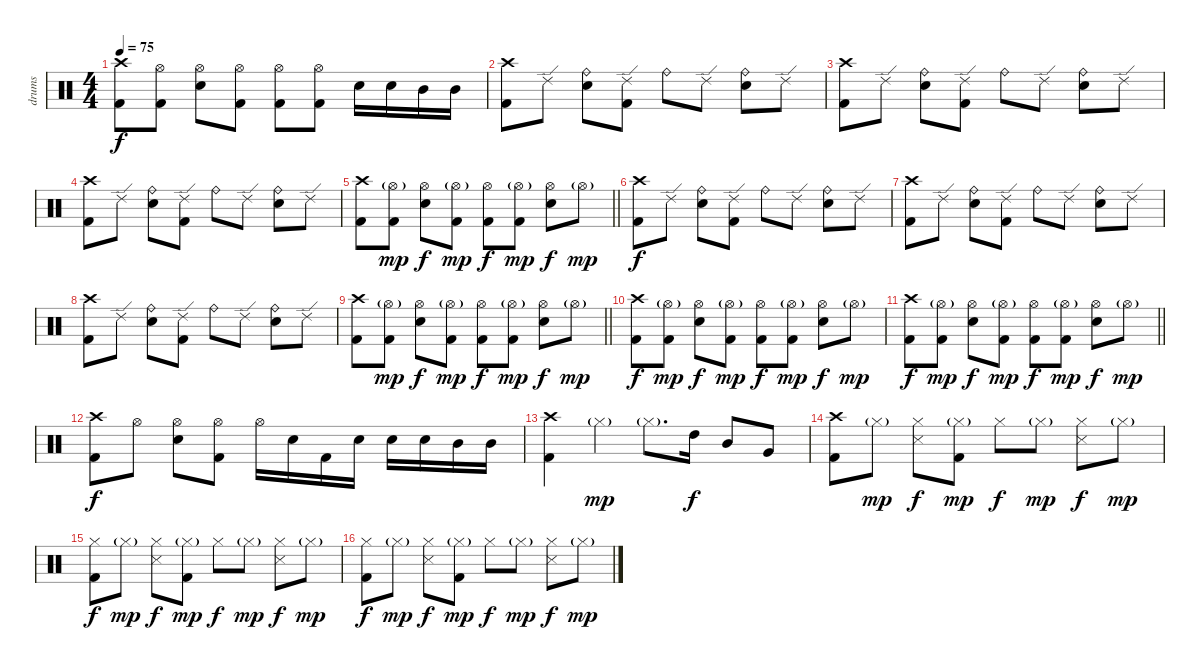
\track ("drums" "drums") {instrument percussion}
\staff
\articulation defaults
\ts (4 4)
\tempo 75
\clef neutral
\ks c
("Crash high (hit)" "Kick (hit) 2").8{dy f} ("Hi-Hat (open)" "Kick (hit) 2").8 ("Hi-Hat (open)" "Electric Snare (hit)").8 ("Hi-Hat (open)" "Kick (hit) 2").8 ("Hi-Hat (open)" "Kick (hit) 2").8 ("Hi-Hat (open)" "Kick (hit) 2").8 "Electric Snare (hit)".16 "Electric Snare (hit)".16 "Mid Tom (hit)".16 "Mid Tom (hit)".16 |
("Crash high (hit)" "Kick (hit) 2").8 "Ride (edge) 2".8 ("Ride (bell)" "Electric Snare (hit)").8 ("Ride (edge) 2" "Kick (hit) 2").8 "Ride (bell)".8 "Ride (edge) 2".8 ("Ride (bell)" "Electric Snare (hit)").8 "Ride (edge) 2".8 |
("Crash high (hit)" "Kick (hit) 2").8 "Ride (edge) 2".8 ("Ride (bell)" "Electric Snare (hit)").8 ("Ride (edge) 2" "Kick (hit) 2").8 "Ride (bell)".8 "Ride (edge) 2".8 ("Ride (bell)" "Electric Snare (hit)").8 "Ride (edge) 2".8 |
("Crash high (hit)" "Kick (hit) 2").8 "Ride (edge) 2".8 ("Ride (bell)" "Electric Snare (hit)").8 ("Ride (edge) 2" "Kick (hit) 2").8 "Ride (bell)".8 "Ride (edge) 2".8 ("Ride (bell)" "Electric Snare (hit)").8 "Ride (edge) 2".8 |
\barLineRight lightlight
("Crash high (hit)" "Kick (hit) 2").8 ("Hi-Hat (open)"{g} "Kick (hit) 2").8{dy mp} ("Hi-Hat (open)" "Electric Snare (hit)").8{dy f} ("Hi-Hat (open)"{g} "Kick (hit) 2").8{dy mp} ("Hi-Hat (open)" "Kick (hit) 2").8{dy f} ("Hi-Hat (open)"{g} "Kick (hit) 2").8{dy mp} ("Hi-Hat (open)" "Electric Snare (hit)").8{dy f} "Hi-Hat (open)"{g}.8{dy mp} |
("Crash high (hit)" "Kick (hit) 2").8{dy f} "Ride (edge) 2".8 ("Ride (bell)" "Electric Snare (hit)").8 ("Ride (edge) 2" "Kick (hit) 2").8 "Ride (bell)".8 "Ride (edge) 2".8 ("Ride (bell)" "Electric Snare (hit)").8 "Ride (edge) 2".8 |
("Crash high (hit)" "Kick (hit) 2").8 "Ride (edge) 2".8 ("Ride (bell)" "Electric Snare (hit)").8 ("Ride (edge) 2" "Kick (hit) 2").8 "Ride (bell)".8 "Ride (edge) 2".8 ("Ride (bell)" "Electric Snare (hit)").8 "Ride (edge) 2".8 |
("Crash high (hit)" "Kick (hit) 2").8 "Ride (edge) 2".8 ("Ride (bell)" "Electric Snare (hit)").8 ("Ride (edge) 2" "Kick (hit) 2").8 "Ride (bell)".8 "Ride (edge) 2".8 ("Ride (bell)" "Electric Snare (hit)").8 "Ride (edge) 2".8 |
\barLineRight lightlight
("Crash high (hit)" "Kick (hit) 2").8 ("Hi-Hat (open)"{g} "Kick (hit) 2").8{dy mp} ("Hi-Hat (open)" "Electric Snare (hit)").8{dy f} ("Hi-Hat (open)"{g} "Kick (hit) 2").8{dy mp} ("Hi-Hat (open)" "Kick (hit) 2").8{dy f} ("Hi-Hat (open)"{g} "Kick (hit) 2").8{dy mp} ("Hi-Hat (open)" "Electric Snare (hit)").8{dy f} "Hi-Hat (open)"{g}.8{dy mp} |
("Crash high (hit)" "Kick (hit) 2").8{dy f} ("Hi-Hat (open)"{g} "Kick (hit) 2").8{dy mp} ("Hi-Hat (open)" "Electric Snare (hit)").8{dy f} ("Hi-Hat (open)"{g} "Kick (hit) 2").8{dy mp} ("Hi-Hat (open)" "Kick (hit) 2").8{dy f} ("Hi-Hat (open)"{g} "Kick (hit) 2").8{dy mp} ("Hi-Hat (open)" "Electric Snare (hit)").8{dy f} "Hi-Hat (open)"{g}.8{dy mp} |
\barLineRight lightlight
("Crash high (hit)" "Kick (hit) 2").8{dy f} ("Hi-Hat (open)"{g} "Kick (hit) 2").8{dy mp} ("Hi-Hat (open)" "Electric Snare (hit)").8{dy f} ("Hi-Hat (open)"{g} "Kick (hit) 2").8{dy mp} ("Hi-Hat (open)" "Kick (hit) 2").8{dy f} ("Hi-Hat (open)"{g} "Kick (hit) 2").8{dy mp} ("Hi-Hat (open)" "Electric Snare (hit)").8{dy f} "Hi-Hat (open)"{g}.8{dy mp} |
("Crash high (hit)" "Kick (hit) 2").8{dy f} "Hi-Hat (open)".8 ("Hi-Hat (open)" "Electric Snare (hit)").8 ("Hi-Hat (open)" "Kick (hit) 2").8 "Hi-Hat (open)".16 "Electric Snare (hit)".16 "Kick (hit) 2".16 "Electric Snare (hit)".16 "Electric Snare (hit)".16 "Electric Snare (hit)".16 "Mid Tom (hit)".16 "Mid Tom (hit)".16 |
("Crash high (hit)" "Kick (hit) 2").4 "Hi-Hat (closed)"{g}.4{dy mp} "Hi-Hat (closed)"{g}.8{d} "High Tom (hit)".16{dy f} "Mid Tom (hit)".8 "Very Low Tom (hit)".8 |
("Crash high (hit)" "Kick (hit) 2").8 "Hi-Hat (closed)"{g}.8{dy mp} ("Hi-Hat (closed)" "Snare (side stick) 3").8{dy f} ("Hi-Hat (closed)"{g} "Kick (hit) 2").8{dy mp} "Hi-Hat (closed)".8{dy f} "Hi-Hat (closed)"{g}.8{dy mp} ("Hi-Hat (closed)" "Snare (side stick) 3").8{dy f} "Hi-Hat (closed)"{g}.8{dy mp} |
("Hi-Hat (closed)" "Kick (hit) 2").8{dy f} "Hi-Hat (closed)"{g}.8{dy mp} ("Hi-Hat (closed)" "Snare (side stick) 3").8{dy f} ("Hi-Hat (closed)"{g} "Kick (hit) 2").8{dy mp} "Hi-Hat (closed)".8{dy f} "Hi-Hat (closed)"{g}.8{dy mp} ("Hi-Hat (closed)" "Snare (side stick) 3").8{dy f} "Hi-Hat (closed)"{g}.8{dy mp} |
("Hi-Hat (closed)" "Kick (hit) 2").8{dy f} "Hi-Hat (closed)"{g}.8{dy mp} ("Hi-Hat (closed)" "Snare (side stick) 3").8{dy f} ("Hi-Hat (closed)"{g} "Kick (hit) 2").8{dy mp} "Hi-Hat (closed)".8{dy f} "Hi-Hat (closed)"{g}.8{dy mp} ("Hi-Hat (closed)" "Snare (side stick) 3").8{dy f} "Hi-Hat (closed)"{g}.8{dy mp}
